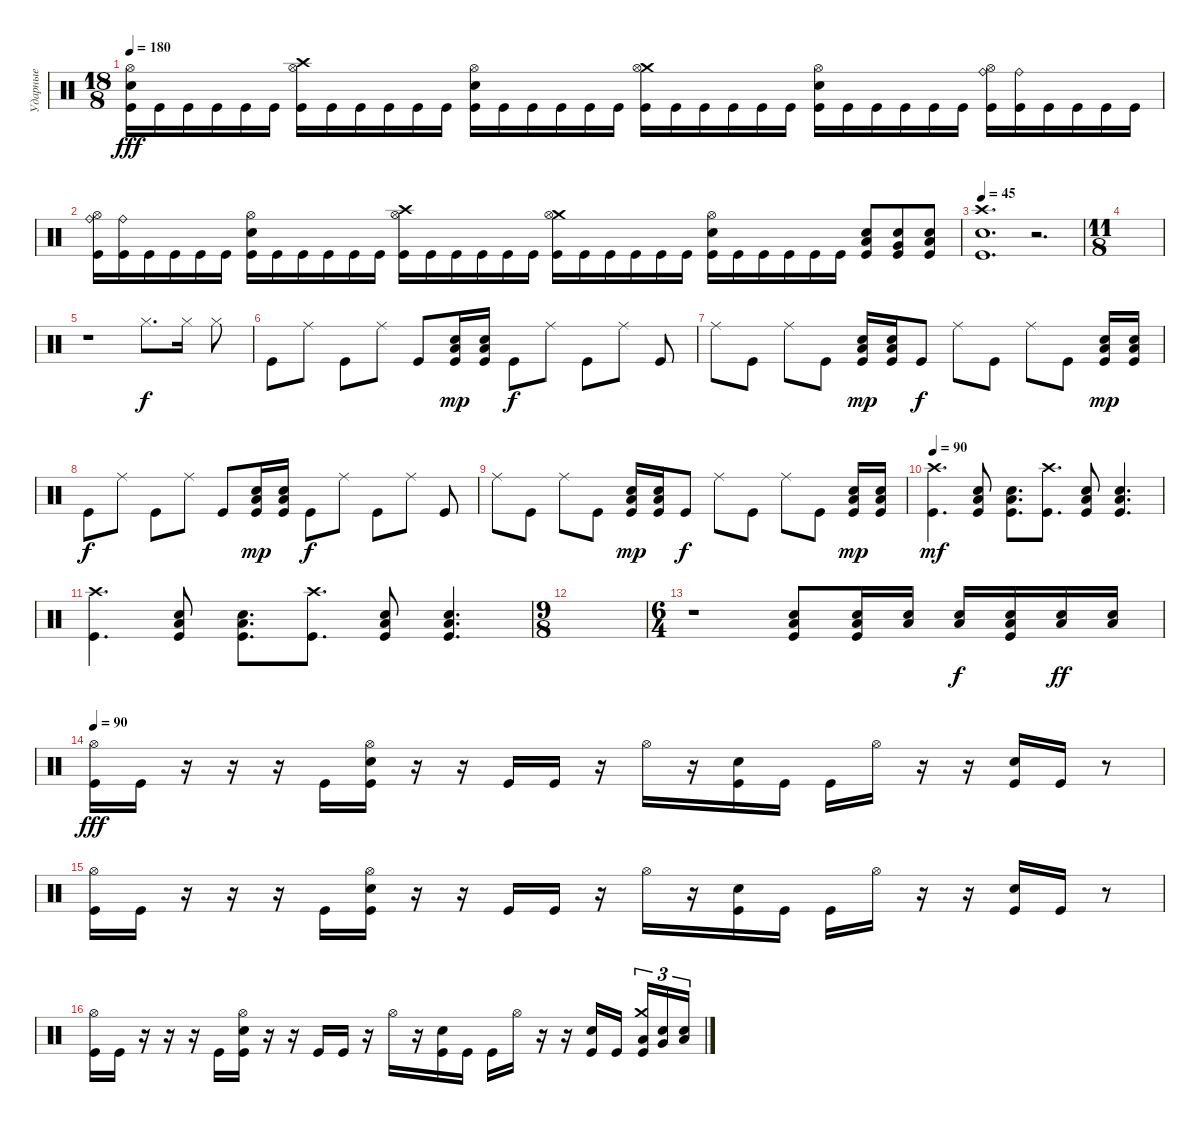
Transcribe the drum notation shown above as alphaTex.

\track ("Ударные" "Ударные") {instrument percussion}
\staff {score}
\articulation defaults
\ts (18 8)
\tempo 180
\clef neutral
\ks c
("Kick (hit)" "Snare (hit) 2" "Hi-Hat (open)").16{dy fff} "Kick (hit)".16 "Kick (hit)".16 "Kick (hit)".16 "Kick (hit)".16 "Kick (hit)".16 ("Kick (hit)" "Crash high (hit)" "Hi-Hat (open)").16 "Kick (hit)".16 "Kick (hit)".16 "Kick (hit)".16 "Kick (hit)".16 "Kick (hit)".16 ("Kick (hit)" "Snare (hit) 2" "Hi-Hat (open)").16 "Kick (hit)".16 "Kick (hit)".16 "Kick (hit)".16 "Kick (hit)".16 "Kick (hit)".16 ("Kick (hit)" "Crash medium (hit)" "Hi-Hat (open)").16 "Kick (hit)".16 "Kick (hit)".16 "Kick (hit)".16 "Kick (hit)".16 "Kick (hit)".16 ("Kick (hit)" "Snare (hit) 2" "Hi-Hat (open)").16 "Kick (hit)".16 "Kick (hit)".16 "Kick (hit)".16 "Kick (hit)".16 "Kick (hit)".16 ("Kick (hit)" "Ride (bell)" "Hi-Hat (open)").16 ("Kick (hit)" "Ride (bell)").16 "Kick (hit)".16 "Kick (hit)".16 "Kick (hit)".16 "Kick (hit)".16 |
("Kick (hit)" "Ride (bell)" "Hi-Hat (open)").16 ("Kick (hit)" "Ride (bell)").16 "Kick (hit)".16 "Kick (hit)".16 "Kick (hit)".16 "Kick (hit)".16 ("Kick (hit)" "Snare (hit) 2" "Hi-Hat (open)").16 "Kick (hit)".16 "Kick (hit)".16 "Kick (hit)".16 "Kick (hit)".16 "Kick (hit)".16 ("Kick (hit)" "Crash high (hit)" "Hi-Hat (open)").16 "Kick (hit)".16 "Kick (hit)".16 "Kick (hit)".16 "Kick (hit)".16 "Kick (hit)".16 ("Kick (hit)" "Crash medium (hit)" "Hi-Hat (open)").16 "Kick (hit)".16 "Kick (hit)".16 "Kick (hit)".16 "Kick (hit)".16 "Kick (hit)".16 ("Kick (hit)" "Snare (hit) 2" "Hi-Hat (open)").16 "Kick (hit)".16 "Kick (hit)".16 "Kick (hit)".16 "Kick (hit)".16 "Kick (hit)".16 ("Kick (hit)" "Snare (hit) 2" "Low Tom (hit)").8 ("Kick (hit)" "Snare (hit) 2" "Very Low Tom (hit)").8 ("Kick (hit)" "Snare (hit) 2" "Low Floor Tom (hit)").8 |
\tempo 45
("Crash high (hit)" "Snare (hit) 2" "Kick (hit)").1{d} r.2{d} |
\ts (11 8)
|
r.1 "Hi-Hat (closed)".8{d dy f} "Hi-Hat (closed)".16 "Hi-Hat (closed)".8 |
"Kick (hit)".8 "Ride (middle)".8 "Kick (hit)".8 "Ride (middle)".8 "Kick (hit)".8 ("Kick (hit)" "Low Floor Tom (hit)" "Snare (hit) 2").16{dy mp} ("Kick (hit)" "Low Floor Tom (hit)" "Snare (hit) 2").16 "Kick (hit)".8{dy f} "Ride (middle)".8 "Kick (hit)".8 "Ride (middle)".8 "Kick (hit)".8 |
"Ride (middle)".8 "Kick (hit)".8 "Ride (middle)".8 "Kick (hit)".8 ("Kick (hit)" "Low Floor Tom (hit)" "Snare (hit) 2").16{dy mp} ("Kick (hit)" "Low Floor Tom (hit)" "Snare (hit) 2").16 "Kick (hit)".8{dy f} "Ride (middle)".8 "Kick (hit)".8 "Ride (middle)".8 "Kick (hit)".8 ("Kick (hit)" "Low Floor Tom (hit)" "Snare (hit) 2").16{dy mp} ("Kick (hit)" "Low Floor Tom (hit)" "Snare (hit) 2").16 |
"Kick (hit)".8{dy f} "Ride (middle)".8 "Kick (hit)".8 "Ride (middle)".8 "Kick (hit)".8 ("Kick (hit)" "Low Floor Tom (hit)" "Snare (hit) 2").16{dy mp} ("Kick (hit)" "Low Floor Tom (hit)" "Snare (hit) 2").16 "Kick (hit)".8{dy f} "Ride (middle)".8 "Kick (hit)".8 "Ride (middle)".8 "Kick (hit)".8 |
"Ride (middle)".8 "Kick (hit)".8 "Ride (middle)".8 "Kick (hit)".8 ("Kick (hit)" "Low Floor Tom (hit)" "Snare (hit) 2").16{dy mp} ("Kick (hit)" "Low Floor Tom (hit)" "Snare (hit) 2").16 "Kick (hit)".8{dy f} "Ride (middle)".8 "Kick (hit)".8 "Ride (middle)".8 "Kick (hit)".8 ("Kick (hit)" "Low Floor Tom (hit)" "Snare (hit) 2").16{dy mp} ("Kick (hit)" "Low Floor Tom (hit)" "Snare (hit) 2").16 |
\tempo 90
("Kick (hit)" "Crash high (hit)").4{d dy mf} ("Kick (hit)" "Snare (hit) 2" "Low Floor Tom (hit)").8 ("Kick (hit)" "Snare (hit) 2" "Low Floor Tom (hit)").8{d} ("Kick (hit)" "Crash high (hit)").8{d} ("Kick (hit)" "Snare (hit) 2" "Low Floor Tom (hit)").8 ("Kick (hit)" "Snare (hit) 2" "Low Floor Tom (hit)").4{d} |
("Kick (hit)" "Crash high (hit)").4{d} ("Kick (hit)" "Snare (hit) 2" "Low Floor Tom (hit)").8 ("Kick (hit)" "Snare (hit) 2" "Low Floor Tom (hit)").8{d} ("Kick (hit)" "Crash high (hit)").8{d} ("Kick (hit)" "Snare (hit) 2" "Low Floor Tom (hit)").8 ("Kick (hit)" "Snare (hit) 2" "Low Floor Tom (hit)").4{d} |
\ts (9 8)
|
\ts (6 4)
r.1 ("Snare (hit) 2" "Kick (hit)" "Low Floor Tom (hit)").8 ("Snare (hit) 2" "Low Floor Tom (hit)" "Kick (hit)").16 ("Snare (hit) 2" "Low Floor Tom (hit)").16 ("Snare (hit) 2" "Low Floor Tom (hit)").16{dy f} ("Snare (hit) 2" "Low Floor Tom (hit)" "Kick (hit)").16 ("Snare (hit) 2" "Low Floor Tom (hit)").16{dy ff} ("Snare (hit) 2" "Low Floor Tom (hit)").16 |
\tempo 90
("Kick (hit)" "Hi-Hat (open)").16{dy fff} "Kick (hit)".16 r.16 r.16 r.16 "Kick (hit)".16 ("Kick (hit)" "Snare (hit) 2" "Hi-Hat (open)").16 r.16 r.16 "Kick (hit)".16 "Kick (hit)".16 r.16 "Hi-Hat (open)".16 r.16 ("Kick (hit)" "Snare (hit) 2").16 "Kick (hit)".16 "Kick (hit)".16 "Hi-Hat (open)".16 r.16 r.16 ("Kick (hit)" "Snare (hit) 2").16 "Kick (hit)".16 r.8 |
("Kick (hit)" "Hi-Hat (open)").16 "Kick (hit)".16 r.16 r.16 r.16 "Kick (hit)".16 ("Kick (hit)" "Snare (hit) 2" "Hi-Hat (open)").16 r.16 r.16 "Kick (hit)".16 "Kick (hit)".16 r.16 "Hi-Hat (open)".16 r.16 ("Kick (hit)" "Snare (hit) 2").16 "Kick (hit)".16 "Kick (hit)".16 "Hi-Hat (open)".16 r.16 r.16 ("Kick (hit)" "Snare (hit) 2").16 "Kick (hit)".16 r.8 |
("Kick (hit)" "Hi-Hat (open)").16 "Kick (hit)".16 r.16 r.16 r.16 "Kick (hit)".16 ("Kick (hit)" "Snare (hit) 2" "Hi-Hat (open)").16 r.16 r.16 "Kick (hit)".16 "Kick (hit)".16 r.16 "Hi-Hat (open)".16 r.16 ("Kick (hit)" "Snare (hit) 2").16 "Kick (hit)".16 "Kick (hit)".16 "Hi-Hat (open)".16 r.16 r.16 ("Kick (hit)" "Snare (hit) 2").16 "Kick (hit)".16{beam splitsecondary} ("Kick (hit)" "Low Tom (hit)" "Crash medium (hit)").16{tu (3 2)} ("Snare (hit)" "Very Low Tom (hit)").16{tu (3 2)} ("Snare (hit)" "Low Floor Tom (hit)").16{tu (3 2)}
